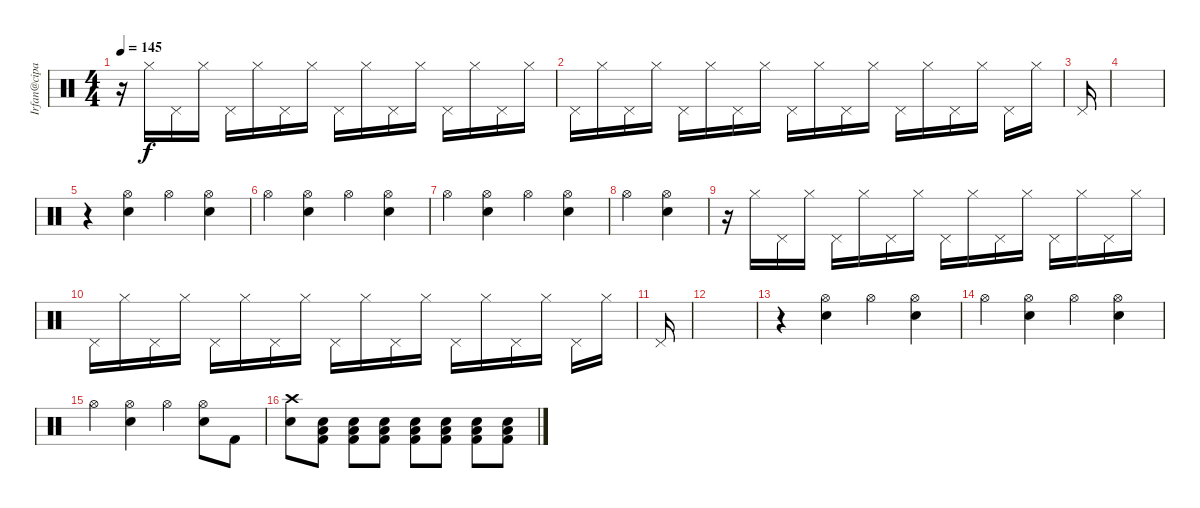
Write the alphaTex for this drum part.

\track ("Irfan@cipan 2" "Irfan@cipa") {instrument percussion}
\staff {score}
\articulation defaults
\ts (4 4)
\tempo 145
\clef neutral
\ks c
r.16{dy f} "Hi-Hat (closed)".16 "Pedal Hi-Hat (hit)".16 "Hi-Hat (closed)".16 "Pedal Hi-Hat (hit)".16 "Hi-Hat (closed)".16 "Pedal Hi-Hat (hit)".16 "Hi-Hat (closed)".16 "Pedal Hi-Hat (hit)".16 "Hi-Hat (closed)".16 "Pedal Hi-Hat (hit)".16 "Hi-Hat (closed)".16 "Pedal Hi-Hat (hit)".16 "Hi-Hat (closed)".16 "Pedal Hi-Hat (hit)".16 "Hi-Hat (closed)".16 |
"Pedal Hi-Hat (hit)".16 "Hi-Hat (closed)".16 "Pedal Hi-Hat (hit)".16 "Hi-Hat (closed)".16 "Pedal Hi-Hat (hit)".16 "Hi-Hat (closed)".16 "Pedal Hi-Hat (hit)".16 "Hi-Hat (closed)".16 "Pedal Hi-Hat (hit)".16 "Hi-Hat (closed)".16 "Pedal Hi-Hat (hit)".16 "Hi-Hat (closed)".16 "Pedal Hi-Hat (hit)".16 "Hi-Hat (closed)".16 "Pedal Hi-Hat (hit)".16 "Hi-Hat (closed)".16 "Pedal Hi-Hat (hit)".16 "Hi-Hat (closed)".16 |
"Pedal Hi-Hat (hit)".16 |
|
r.4 ("Hi-Hat (open)" "Electric Snare (hit)").4 "Hi-Hat (open)".4 ("Hi-Hat (open)" "Electric Snare (hit)").4 |
"Hi-Hat (open)".4 ("Hi-Hat (open)" "Electric Snare (hit)").4 "Hi-Hat (open)".4 ("Hi-Hat (open)" "Electric Snare (hit)").4 |
"Hi-Hat (open)".4 ("Hi-Hat (open)" "Electric Snare (hit)").4 "Hi-Hat (open)".4 ("Hi-Hat (open)" "Electric Snare (hit)").4 |
"Hi-Hat (open)".4 ("Hi-Hat (open)" "Electric Snare (hit)").4 |
r.16 "Hi-Hat (closed)".16 "Pedal Hi-Hat (hit)".16 "Hi-Hat (closed)".16 "Pedal Hi-Hat (hit)".16 "Hi-Hat (closed)".16 "Pedal Hi-Hat (hit)".16 "Hi-Hat (closed)".16 "Pedal Hi-Hat (hit)".16 "Hi-Hat (closed)".16 "Pedal Hi-Hat (hit)".16 "Hi-Hat (closed)".16 "Pedal Hi-Hat (hit)".16 "Hi-Hat (closed)".16 "Pedal Hi-Hat (hit)".16 "Hi-Hat (closed)".16 |
"Pedal Hi-Hat (hit)".16 "Hi-Hat (closed)".16 "Pedal Hi-Hat (hit)".16 "Hi-Hat (closed)".16 "Pedal Hi-Hat (hit)".16 "Hi-Hat (closed)".16 "Pedal Hi-Hat (hit)".16 "Hi-Hat (closed)".16 "Pedal Hi-Hat (hit)".16 "Hi-Hat (closed)".16 "Pedal Hi-Hat (hit)".16 "Hi-Hat (closed)".16 "Pedal Hi-Hat (hit)".16 "Hi-Hat (closed)".16 "Pedal Hi-Hat (hit)".16 "Hi-Hat (closed)".16 "Pedal Hi-Hat (hit)".16 "Hi-Hat (closed)".16 |
"Pedal Hi-Hat (hit)".16 |
|
r.4 ("Hi-Hat (open)" "Electric Snare (hit)").4 "Hi-Hat (open)".4 ("Hi-Hat (open)" "Electric Snare (hit)").4 |
"Hi-Hat (open)".4 ("Hi-Hat (open)" "Electric Snare (hit)").4 "Hi-Hat (open)".4 ("Hi-Hat (open)" "Electric Snare (hit)").4 |
"Hi-Hat (open)".4 ("Hi-Hat (open)" "Electric Snare (hit)").4 "Hi-Hat (open)".4 ("Hi-Hat (open)" "Electric Snare (hit)").8 "Kick (hit) 2".8 |
("Crash high (hit)" "Electric Snare (hit)").8 ("Kick (hit) 2" "Low Floor Tom (hit)" "Electric Snare (hit)").8 ("Kick (hit) 2" "Low Floor Tom (hit)" "Electric Snare (hit)").8 ("Kick (hit) 2" "Low Floor Tom (hit)" "Electric Snare (hit)").8 ("Kick (hit) 2" "Low Floor Tom (hit)" "Electric Snare (hit)").8 ("Kick (hit) 2" "Low Floor Tom (hit)" "Electric Snare (hit)").8 ("Kick (hit) 2" "Low Floor Tom (hit)" "Electric Snare (hit)").8 ("Kick (hit) 2" "Low Floor Tom (hit)" "Electric Snare (hit)").8
